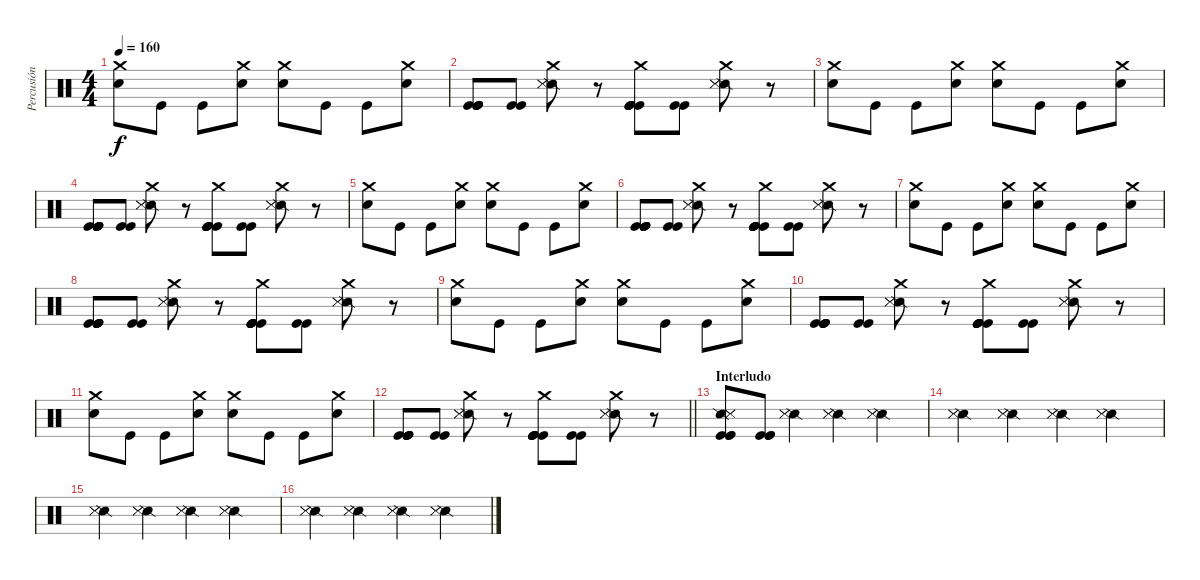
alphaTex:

\track ("Percusión" "Percusión") {instrument percussion}
\staff {score}
\articulation defaults
\ts (4 4)
\tempo 160
\clef neutral
\ks c
("Crash medium (hit)" "Electric Snare (hit)").8{dy f} "Kick (hit)".8 "Kick (hit)".8 ("Crash medium (hit)" "Electric Snare (hit)").8 ("Crash medium (hit)" "Electric Snare (hit)").8 "Kick (hit)".8 "Kick (hit)".8 ("Crash medium (hit)" "Electric Snare (hit)").8 |
("Kick (hit)" "Kick (hit)" "Kick (hit)" "Kick (hit)" "Kick (hit)").8 ("Kick (hit)" "Kick (hit)").8 ("Crash medium (hit)" "Snare (side stick) 2" "Metronome (hit)" "Metronome (hit)").8 r.8 ("Crash medium (hit)" "Kick (hit)" "Kick (hit)" "Kick (hit)" "Kick (hit)" "Kick (hit)").8 ("Kick (hit)" "Kick (hit)").8 ("Crash medium (hit)" "Snare (side stick) 2" "Metronome (hit)" "Metronome (hit)").8 r.8 |
("Crash medium (hit)" "Electric Snare (hit)").8 "Kick (hit)".8 "Kick (hit)".8 ("Crash medium (hit)" "Electric Snare (hit)").8 ("Crash medium (hit)" "Electric Snare (hit)").8 "Kick (hit)".8 "Kick (hit)".8 ("Crash medium (hit)" "Electric Snare (hit)").8 |
("Kick (hit)" "Kick (hit)" "Kick (hit)" "Kick (hit)" "Kick (hit)").8 ("Kick (hit)" "Kick (hit)").8 ("Crash medium (hit)" "Snare (side stick) 2" "Metronome (hit)" "Metronome (hit)").8 r.8 ("Crash medium (hit)" "Kick (hit)" "Kick (hit)" "Kick (hit)" "Kick (hit)" "Kick (hit)").8 ("Kick (hit)" "Kick (hit)").8 ("Crash medium (hit)" "Snare (side stick) 2" "Metronome (hit)" "Metronome (hit)").8 r.8 |
("Crash medium (hit)" "Electric Snare (hit)").8 "Kick (hit)".8 "Kick (hit)".8 ("Crash medium (hit)" "Electric Snare (hit)").8 ("Crash medium (hit)" "Electric Snare (hit)").8 "Kick (hit)".8 "Kick (hit)".8 ("Crash medium (hit)" "Electric Snare (hit)").8 |
("Kick (hit)" "Kick (hit)" "Kick (hit)" "Kick (hit)" "Kick (hit)").8 ("Kick (hit)" "Kick (hit)").8 ("Crash medium (hit)" "Snare (side stick) 2" "Metronome (hit)" "Metronome (hit)").8 r.8 ("Crash medium (hit)" "Kick (hit)" "Kick (hit)" "Kick (hit)" "Kick (hit)" "Kick (hit)").8 ("Kick (hit)" "Kick (hit)").8 ("Crash medium (hit)" "Snare (side stick) 2" "Metronome (hit)" "Metronome (hit)").8 r.8 |
("Crash medium (hit)" "Electric Snare (hit)").8 "Kick (hit)".8 "Kick (hit)".8 ("Crash medium (hit)" "Electric Snare (hit)").8 ("Crash medium (hit)" "Electric Snare (hit)").8 "Kick (hit)".8 "Kick (hit)".8 ("Crash medium (hit)" "Electric Snare (hit)").8 |
("Kick (hit)" "Kick (hit)" "Kick (hit)" "Kick (hit)" "Kick (hit)").8 ("Kick (hit)" "Kick (hit)").8 ("Crash medium (hit)" "Snare (side stick) 2" "Metronome (hit)" "Metronome (hit)").8 r.8 ("Crash medium (hit)" "Kick (hit)" "Kick (hit)" "Kick (hit)" "Kick (hit)" "Kick (hit)").8 ("Kick (hit)" "Kick (hit)").8 ("Crash medium (hit)" "Snare (side stick) 2" "Metronome (hit)" "Metronome (hit)").8 r.8 |
("Crash medium (hit)" "Electric Snare (hit)").8 "Kick (hit)".8 "Kick (hit)".8 ("Crash medium (hit)" "Electric Snare (hit)").8 ("Crash medium (hit)" "Electric Snare (hit)").8 "Kick (hit)".8 "Kick (hit)".8 ("Crash medium (hit)" "Electric Snare (hit)").8 |
("Kick (hit)" "Kick (hit)" "Kick (hit)" "Kick (hit)" "Kick (hit)").8 ("Kick (hit)" "Kick (hit)").8 ("Crash medium (hit)" "Snare (side stick) 2" "Metronome (hit)" "Metronome (hit)").8 r.8 ("Crash medium (hit)" "Kick (hit)" "Kick (hit)" "Kick (hit)" "Kick (hit)" "Kick (hit)").8 ("Kick (hit)" "Kick (hit)").8 ("Crash medium (hit)" "Snare (side stick) 2" "Metronome (hit)" "Metronome (hit)").8 r.8 |
("Crash medium (hit)" "Electric Snare (hit)").8 "Kick (hit)".8 "Kick (hit)".8 ("Crash medium (hit)" "Electric Snare (hit)").8 ("Crash medium (hit)" "Electric Snare (hit)").8 "Kick (hit)".8 "Kick (hit)".8 ("Crash medium (hit)" "Electric Snare (hit)").8 |
\barLineRight lightlight
("Kick (hit)" "Kick (hit)" "Kick (hit)" "Kick (hit)" "Kick (hit)").8 ("Kick (hit)" "Kick (hit)").8 ("Crash medium (hit)" "Snare (side stick) 2" "Metronome (hit)" "Metronome (hit)").8 r.8 ("Crash medium (hit)" "Kick (hit)" "Kick (hit)" "Kick (hit)" "Kick (hit)" "Kick (hit)").8 ("Kick (hit)" "Kick (hit)").8 ("Crash medium (hit)" "Snare (side stick) 2" "Metronome (hit)" "Metronome (hit)").8 r.8 |
\section ("" "Interludo")
("Kick (hit)" "Kick (hit)" "Snare (side stick) 2" "Metronome (hit)" "Metronome (hit)" "Kick (hit)").8 ("Kick (hit)" "Kick (hit)" "Kick (hit)").8 ("Snare (side stick) 2" "Metronome (hit)" "Metronome (hit)").4 ("Snare (side stick) 2" "Metronome (hit)" "Metronome (hit)").4 ("Snare (side stick) 2" "Metronome (hit)" "Metronome (hit)").4 |
("Snare (side stick) 2" "Metronome (hit)" "Metronome (hit)").4 ("Snare (side stick) 2" "Metronome (hit)" "Metronome (hit)").4 ("Snare (side stick) 2" "Metronome (hit)" "Metronome (hit)").4 ("Snare (side stick) 2" "Metronome (hit)" "Metronome (hit)").4 |
("Snare (side stick) 2" "Metronome (hit)" "Metronome (hit)").4 ("Snare (side stick) 2" "Metronome (hit)" "Metronome (hit)").4 ("Snare (side stick) 2" "Metronome (hit)" "Metronome (hit)").4 ("Snare (side stick) 2" "Metronome (hit)" "Metronome (hit)").4 |
("Snare (side stick) 2" "Metronome (hit)" "Metronome (hit)").4 ("Snare (side stick) 2" "Metronome (hit)" "Metronome (hit)").4 ("Snare (side stick) 2" "Metronome (hit)" "Metronome (hit)").4 ("Snare (side stick) 2" "Metronome (hit)" "Metronome (hit)").4
